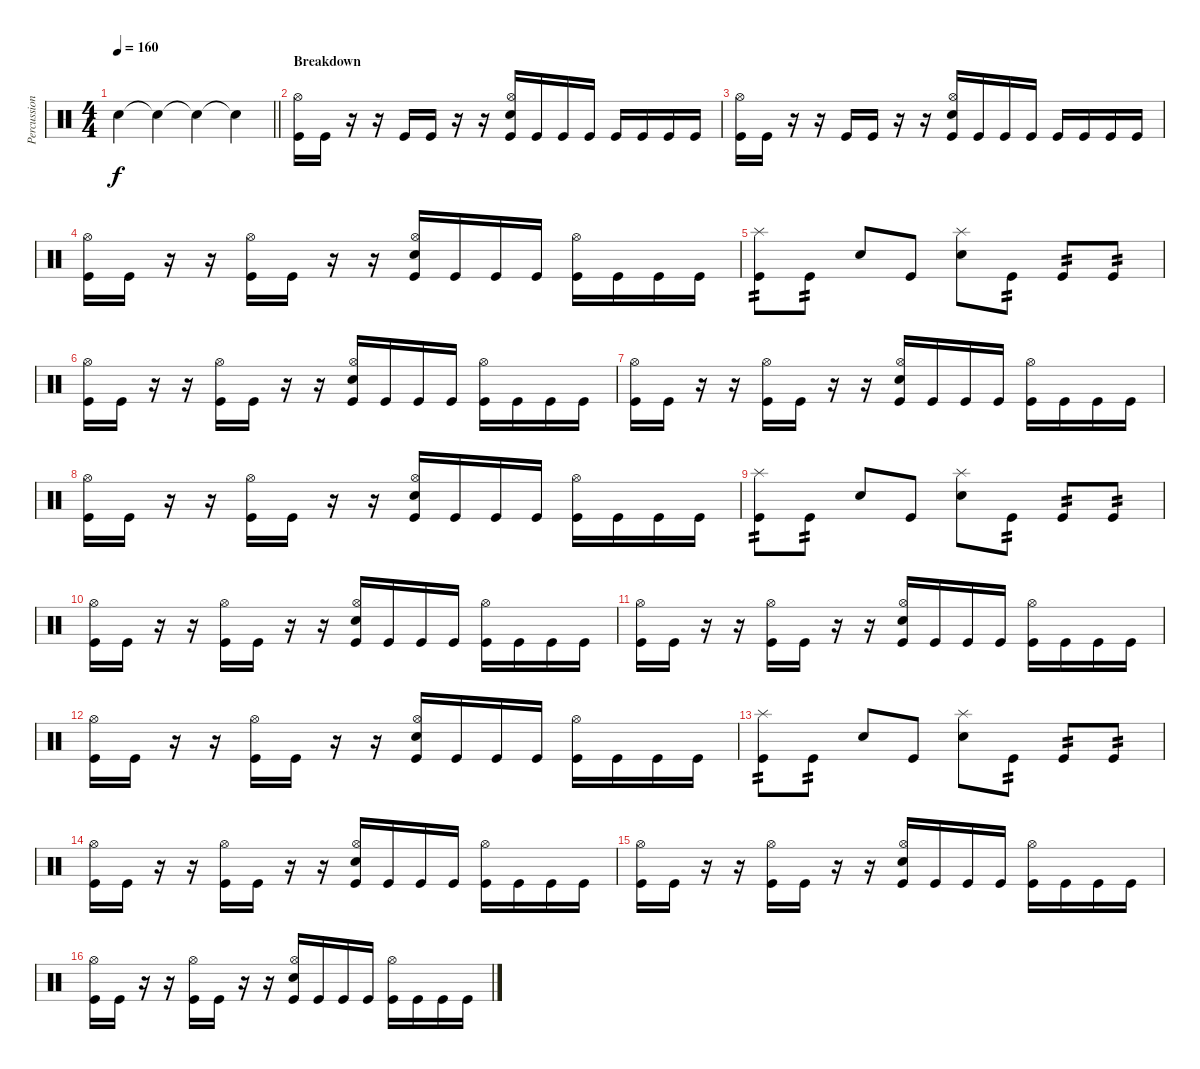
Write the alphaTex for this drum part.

\track ("Percussion" "Percussion") {instrument percussion}
\staff {score}
\articulation defaults
\ts (4 4)
\tempo 160
\clef neutral
\barLineRight lightlight
\ks c "Snare (hit)"{t}.4{dy f} "Snare (hit)"{t}.4 "Snare (hit)"{t}.4 "Snare (hit)"{t}.4
|
\section ("" "Breakdown")
("Hi-Hat (open)" "Kick (hit)").16 "Kick (hit)".16 r.16 r.16 "Kick (hit)".16 "Kick (hit)".16 r.16 r.16 ("Hi-Hat (open)" "Snare (hit) 2" "Kick (hit)").16 "Kick (hit)".16 "Kick (hit)".16 "Kick (hit)".16 "Kick (hit)".16 "Kick (hit)".16 "Kick (hit)".16 "Kick (hit)".16 |
("Hi-Hat (open)" "Kick (hit)").16 "Kick (hit)".16 r.16 r.16 "Kick (hit)".16 "Kick (hit)".16 r.16 r.16 ("Hi-Hat (open)" "Snare (hit) 2" "Kick (hit)").16 "Kick (hit)".16 "Kick (hit)".16 "Kick (hit)".16 "Kick (hit)".16 "Kick (hit)".16 "Kick (hit)".16 "Kick (hit)".16 |
("Hi-Hat (open)" "Kick (hit)").16 "Kick (hit)".16 r.16 r.16 ("Hi-Hat (open)" "Kick (hit)").16 "Kick (hit)".16 r.16 r.16 ("Hi-Hat (open)" "Snare (hit) 2" "Kick (hit)").16 "Kick (hit)".16 "Kick (hit)".16 "Kick (hit)".16 ("Hi-Hat (open)" "Kick (hit)").16 "Kick (hit)".16 "Kick (hit)".16 "Kick (hit)".16 |
("Splash (hit)" "Kick (hit)").8{tp 2} "Kick (hit)".8{tp 2} "Snare (hit) 2".8 "Kick (hit)".8 ("Splash (hit)" "Snare (hit) 2").8 "Kick (hit)".8{tp 2} "Kick (hit)".8{tp 2} "Kick (hit)".8{tp 2} |
("Hi-Hat (open)" "Kick (hit)").16 "Kick (hit)".16 r.16 r.16 ("Hi-Hat (open)" "Kick (hit)").16 "Kick (hit)".16 r.16 r.16 ("Hi-Hat (open)" "Snare (hit) 2" "Kick (hit)").16 "Kick (hit)".16 "Kick (hit)".16 "Kick (hit)".16 ("Hi-Hat (open)" "Kick (hit)").16 "Kick (hit)".16 "Kick (hit)".16 "Kick (hit)".16 |
("Hi-Hat (open)" "Kick (hit)").16 "Kick (hit)".16 r.16 r.16 ("Hi-Hat (open)" "Kick (hit)").16 "Kick (hit)".16 r.16 r.16 ("Hi-Hat (open)" "Snare (hit) 2" "Kick (hit)").16 "Kick (hit)".16 "Kick (hit)".16 "Kick (hit)".16 ("Hi-Hat (open)" "Kick (hit)").16 "Kick (hit)".16 "Kick (hit)".16 "Kick (hit)".16 |
("Hi-Hat (open)" "Kick (hit)").16 "Kick (hit)".16 r.16 r.16 ("Hi-Hat (open)" "Kick (hit)").16 "Kick (hit)".16 r.16 r.16 ("Hi-Hat (open)" "Snare (hit) 2" "Kick (hit)").16 "Kick (hit)".16 "Kick (hit)".16 "Kick (hit)".16 ("Hi-Hat (open)" "Kick (hit)").16 "Kick (hit)".16 "Kick (hit)".16 "Kick (hit)".16 |
("Splash (hit)" "Kick (hit)").8{tp 2} "Kick (hit)".8{tp 2} "Snare (hit) 2".8 "Kick (hit)".8 ("Splash (hit)" "Snare (hit) 2").8 "Kick (hit)".8{tp 2} "Kick (hit)".8{tp 2} "Kick (hit)".8{tp 2} |
("Hi-Hat (open)" "Kick (hit)").16 "Kick (hit)".16 r.16 r.16 ("Hi-Hat (open)" "Kick (hit)").16 "Kick (hit)".16 r.16 r.16 ("Hi-Hat (open)" "Snare (hit) 2" "Kick (hit)").16 "Kick (hit)".16 "Kick (hit)".16 "Kick (hit)".16 ("Hi-Hat (open)" "Kick (hit)").16 "Kick (hit)".16 "Kick (hit)".16 "Kick (hit)".16 |
("Hi-Hat (open)" "Kick (hit)").16 "Kick (hit)".16 r.16 r.16 ("Hi-Hat (open)" "Kick (hit)").16 "Kick (hit)".16 r.16 r.16 ("Hi-Hat (open)" "Snare (hit) 2" "Kick (hit)").16 "Kick (hit)".16 "Kick (hit)".16 "Kick (hit)".16 ("Hi-Hat (open)" "Kick (hit)").16 "Kick (hit)".16 "Kick (hit)".16 "Kick (hit)".16 |
("Hi-Hat (open)" "Kick (hit)").16 "Kick (hit)".16 r.16 r.16 ("Hi-Hat (open)" "Kick (hit)").16 "Kick (hit)".16 r.16 r.16 ("Hi-Hat (open)" "Snare (hit) 2" "Kick (hit)").16 "Kick (hit)".16 "Kick (hit)".16 "Kick (hit)".16 ("Hi-Hat (open)" "Kick (hit)").16 "Kick (hit)".16 "Kick (hit)".16 "Kick (hit)".16 |
("Splash (hit)" "Kick (hit)").8{tp 2} "Kick (hit)".8{tp 2} "Snare (hit) 2".8 "Kick (hit)".8 ("Splash (hit)" "Snare (hit) 2").8 "Kick (hit)".8{tp 2} "Kick (hit)".8{tp 2} "Kick (hit)".8{tp 2} |
("Hi-Hat (open)" "Kick (hit)").16 "Kick (hit)".16 r.16 r.16 ("Hi-Hat (open)" "Kick (hit)").16 "Kick (hit)".16 r.16 r.16 ("Hi-Hat (open)" "Snare (hit) 2" "Kick (hit)").16 "Kick (hit)".16 "Kick (hit)".16 "Kick (hit)".16 ("Hi-Hat (open)" "Kick (hit)").16 "Kick (hit)".16 "Kick (hit)".16 "Kick (hit)".16 |
("Hi-Hat (open)" "Kick (hit)").16 "Kick (hit)".16 r.16 r.16 ("Hi-Hat (open)" "Kick (hit)").16 "Kick (hit)".16 r.16 r.16 ("Hi-Hat (open)" "Snare (hit) 2" "Kick (hit)").16 "Kick (hit)".16 "Kick (hit)".16 "Kick (hit)".16 ("Hi-Hat (open)" "Kick (hit)").16 "Kick (hit)".16 "Kick (hit)".16 "Kick (hit)".16 |
("Hi-Hat (open)" "Kick (hit)").16 "Kick (hit)".16 r.16 r.16 ("Hi-Hat (open)" "Kick (hit)").16 "Kick (hit)".16 r.16 r.16 ("Hi-Hat (open)" "Snare (hit) 2" "Kick (hit)").16 "Kick (hit)".16 "Kick (hit)".16 "Kick (hit)".16 ("Hi-Hat (open)" "Kick (hit)").16 "Kick (hit)".16 "Kick (hit)".16 "Kick (hit)".16
